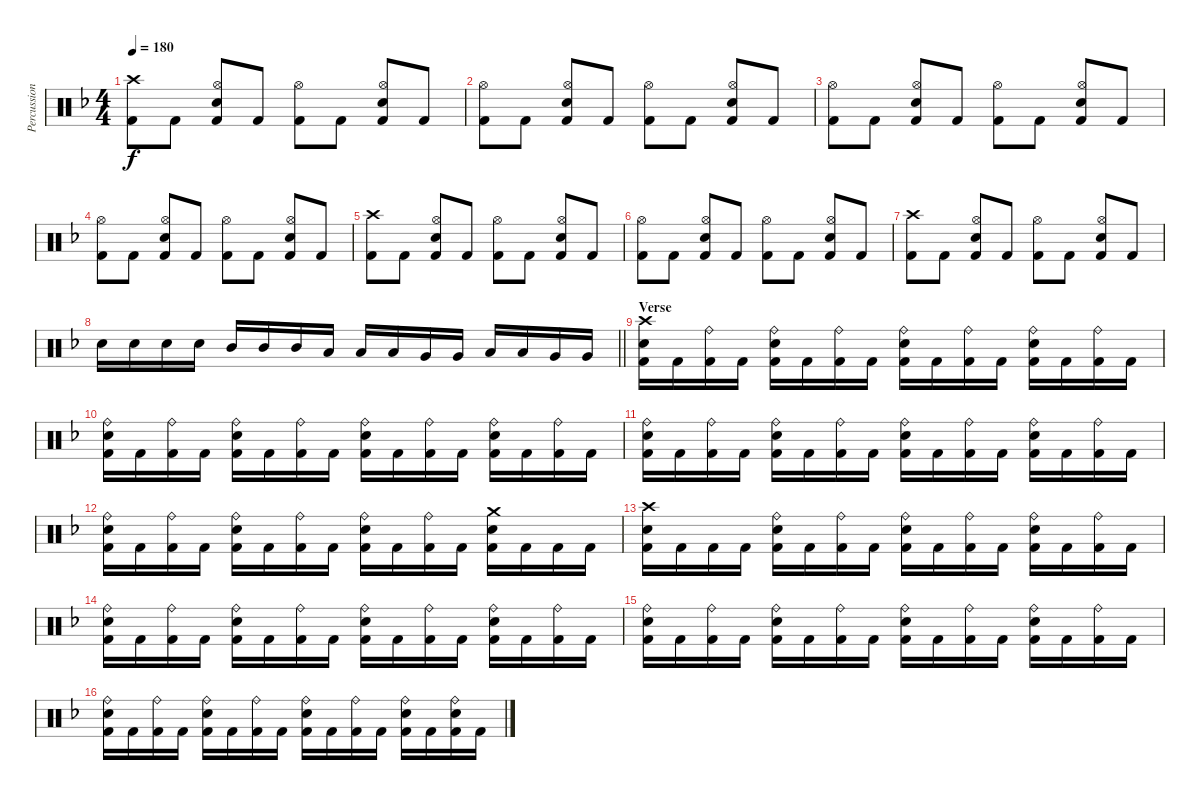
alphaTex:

\track ("Percussion" "Percussion") {instrument percussion}
\staff {score}
\articulation defaults
\ts (4 4)
\tempo 180
\clef neutral
\ks dminor
("Crash high (hit)" "Kick (hit) 2").8{dy f} "Kick (hit) 2".8 ("Hi-Hat (open)" "Snare (hit) 2" "Kick (hit) 2").8 "Kick (hit) 2".8 ("Hi-Hat (open)" "Kick (hit) 2").8 "Kick (hit) 2".8 ("Hi-Hat (open)" "Snare (hit) 2" "Kick (hit) 2").8 "Kick (hit) 2".8 |
("Hi-Hat (open)" "Kick (hit) 2").8 "Kick (hit) 2".8 ("Hi-Hat (open)" "Snare (hit) 2" "Kick (hit) 2").8 "Kick (hit) 2".8 ("Hi-Hat (open)" "Kick (hit) 2").8 "Kick (hit) 2".8 ("Hi-Hat (open)" "Snare (hit) 2" "Kick (hit) 2").8 "Kick (hit) 2".8 |
("Hi-Hat (open)" "Kick (hit) 2").8 "Kick (hit) 2".8 ("Hi-Hat (open)" "Snare (hit) 2" "Kick (hit) 2").8 "Kick (hit) 2".8 ("Hi-Hat (open)" "Kick (hit) 2").8 "Kick (hit) 2".8 ("Hi-Hat (open)" "Snare (hit) 2" "Kick (hit) 2").8 "Kick (hit) 2".8 |
("Hi-Hat (open)" "Kick (hit) 2").8 "Kick (hit) 2".8 ("Hi-Hat (open)" "Snare (hit) 2" "Kick (hit) 2").8 "Kick (hit) 2".8 ("Hi-Hat (open)" "Kick (hit) 2").8 "Kick (hit) 2".8 ("Hi-Hat (open)" "Snare (hit) 2" "Kick (hit) 2").8 "Kick (hit) 2".8 |
("Crash high (hit)" "Kick (hit) 2").8 "Kick (hit) 2".8 ("Hi-Hat (open)" "Snare (hit) 2" "Kick (hit) 2").8 "Kick (hit) 2".8 ("Hi-Hat (open)" "Kick (hit) 2").8 "Kick (hit) 2".8 ("Hi-Hat (open)" "Snare (hit) 2" "Kick (hit) 2").8 "Kick (hit) 2".8 |
("Hi-Hat (open)" "Kick (hit) 2").8 "Kick (hit) 2".8 ("Hi-Hat (open)" "Snare (hit) 2" "Kick (hit) 2").8 "Kick (hit) 2".8 ("Hi-Hat (open)" "Kick (hit) 2").8 "Kick (hit) 2".8 ("Hi-Hat (open)" "Snare (hit) 2" "Kick (hit) 2").8 "Kick (hit) 2".8 |
("Crash high (hit)" "Kick (hit) 2").8 "Kick (hit) 2".8 ("Hi-Hat (open)" "Snare (hit) 2" "Kick (hit) 2").8 "Kick (hit) 2".8 ("Hi-Hat (open)" "Kick (hit) 2").8 "Kick (hit) 2".8 ("Hi-Hat (open)" "Snare (hit) 2" "Kick (hit) 2").8 "Kick (hit) 2".8 |
\barLineRight lightlight "Snare (hit) 2".16 "Snare (hit) 2".16 "Snare (hit) 2".16 "Snare (hit) 2".16 "Mid Tom (hit)".16 "Mid Tom (hit)".16 "Mid Tom (hit)".16 "Low Tom (hit)".16 "Low Tom (hit)".16 "Low Tom (hit)".16 "Very Low Tom (hit)".16 "Very Low Tom (hit)".16 "Low Tom (hit)".16 "Low Tom (hit)".16 "Very Low Tom (hit)".16 "Very Low Tom (hit)".16
|
\section ("" "Verse")
("Crash high (hit)" "Snare (hit) 2" "Kick (hit) 2").16 "Kick (hit) 2".16 ("Ride (bell)" "Kick (hit) 2").16 "Kick (hit) 2".16 ("Ride (bell)" "Snare (hit) 2" "Kick (hit) 2").16 "Kick (hit) 2".16 ("Ride (bell)" "Kick (hit) 2").16 "Kick (hit) 2".16 ("Ride (bell)" "Snare (hit) 2" "Kick (hit) 2").16 "Kick (hit) 2".16 ("Ride (bell)" "Kick (hit) 2").16 "Kick (hit) 2".16 ("Ride (bell)" "Snare (hit) 2" "Kick (hit) 2").16 "Kick (hit) 2".16 ("Ride (bell)" "Kick (hit) 2").16 "Kick (hit) 2".16 |
("Ride (bell)" "Snare (hit) 2" "Kick (hit) 2").16 "Kick (hit) 2".16 ("Ride (bell)" "Kick (hit) 2").16 "Kick (hit) 2".16 ("Ride (bell)" "Snare (hit) 2" "Kick (hit) 2").16 "Kick (hit) 2".16 ("Ride (bell)" "Kick (hit) 2").16 "Kick (hit) 2".16 ("Ride (bell)" "Snare (hit) 2" "Kick (hit) 2").16 "Kick (hit) 2".16 ("Ride (bell)" "Kick (hit) 2").16 "Kick (hit) 2".16 ("Ride (bell)" "Snare (hit) 2" "Kick (hit) 2").16 "Kick (hit) 2".16 ("Ride (bell)" "Kick (hit) 2").16 "Kick (hit) 2".16 |
("Ride (bell)" "Snare (hit) 2" "Kick (hit) 2").16 "Kick (hit) 2".16 ("Ride (bell)" "Kick (hit) 2").16 "Kick (hit) 2".16 ("Ride (bell)" "Snare (hit) 2" "Kick (hit) 2").16 "Kick (hit) 2".16 ("Ride (bell)" "Kick (hit) 2").16 "Kick (hit) 2".16 ("Ride (bell)" "Snare (hit) 2" "Kick (hit) 2").16 "Kick (hit) 2".16 ("Ride (bell)" "Kick (hit) 2").16 "Kick (hit) 2".16 ("Ride (bell)" "Snare (hit) 2" "Kick (hit) 2").16 "Kick (hit) 2".16 ("Ride (bell)" "Kick (hit) 2").16 "Kick (hit) 2".16 |
("Ride (bell)" "Snare (hit) 2" "Kick (hit) 2").16 "Kick (hit) 2".16 ("Ride (bell)" "Kick (hit) 2").16 "Kick (hit) 2".16 ("Ride (bell)" "Snare (hit) 2" "Kick (hit) 2").16 "Kick (hit) 2".16 ("Ride (bell)" "Kick (hit) 2").16 "Kick (hit) 2".16 ("Ride (bell)" "Snare (hit) 2" "Kick (hit) 2").16 "Kick (hit) 2".16 ("Ride (bell)" "Kick (hit) 2").16 "Kick (hit) 2".16 ("Crash medium (hit)" "Snare (hit) 2" "Kick (hit) 2").16 "Kick (hit) 2".16 "Kick (hit) 2".16 "Kick (hit) 2".16 |
("Crash high (hit)" "Snare (hit) 2" "Kick (hit) 2").16 "Kick (hit) 2".16 "Kick (hit) 2".16 "Kick (hit) 2".16 ("Ride (bell)" "Snare (hit) 2" "Kick (hit) 2").16 "Kick (hit) 2".16 ("Ride (bell)" "Kick (hit) 2").16 "Kick (hit) 2".16 ("Ride (bell)" "Snare (hit) 2" "Kick (hit) 2").16 "Kick (hit) 2".16 ("Ride (bell)" "Kick (hit) 2").16 "Kick (hit) 2".16 ("Ride (bell)" "Snare (hit) 2" "Kick (hit) 2").16 "Kick (hit) 2".16 ("Ride (bell)" "Kick (hit) 2").16 "Kick (hit) 2".16 |
("Ride (bell)" "Snare (hit) 2" "Kick (hit) 2").16 "Kick (hit) 2".16 ("Ride (bell)" "Kick (hit) 2").16 "Kick (hit) 2".16 ("Ride (bell)" "Snare (hit) 2" "Kick (hit) 2").16 "Kick (hit) 2".16 ("Ride (bell)" "Kick (hit) 2").16 "Kick (hit) 2".16 ("Ride (bell)" "Snare (hit) 2" "Kick (hit) 2").16 "Kick (hit) 2".16 ("Ride (bell)" "Kick (hit) 2").16 "Kick (hit) 2".16 ("Ride (bell)" "Snare (hit) 2" "Kick (hit) 2").16 "Kick (hit) 2".16 ("Ride (bell)" "Kick (hit) 2").16 "Kick (hit) 2".16 |
("Ride (bell)" "Snare (hit) 2" "Kick (hit) 2").16 "Kick (hit) 2".16 ("Ride (bell)" "Kick (hit) 2").16 "Kick (hit) 2".16 ("Ride (bell)" "Snare (hit) 2" "Kick (hit) 2").16 "Kick (hit) 2".16 ("Ride (bell)" "Kick (hit) 2").16 "Kick (hit) 2".16 ("Ride (bell)" "Snare (hit) 2" "Kick (hit) 2").16 "Kick (hit) 2".16 ("Ride (bell)" "Kick (hit) 2").16 "Kick (hit) 2".16 ("Ride (bell)" "Snare (hit) 2" "Kick (hit) 2").16 "Kick (hit) 2".16 ("Ride (bell)" "Kick (hit) 2").16 "Kick (hit) 2".16 |
("Ride (bell)" "Snare (hit) 2" "Kick (hit) 2").16 "Kick (hit) 2".16 ("Ride (bell)" "Kick (hit) 2").16 "Kick (hit) 2".16 ("Ride (bell)" "Snare (hit) 2" "Kick (hit) 2").16 "Kick (hit) 2".16 ("Ride (bell)" "Kick (hit) 2").16 "Kick (hit) 2".16 ("Ride (bell)" "Snare (hit) 2" "Kick (hit) 2").16 "Kick (hit) 2".16 ("Ride (bell)" "Kick (hit) 2").16 "Kick (hit) 2".16 ("Ride (bell)" "Snare (hit) 2" "Kick (hit) 2").16 "Kick (hit) 2".16 ("Ride (bell)" "Snare (hit) 2" "Kick (hit) 2").16 "Kick (hit) 2".16
